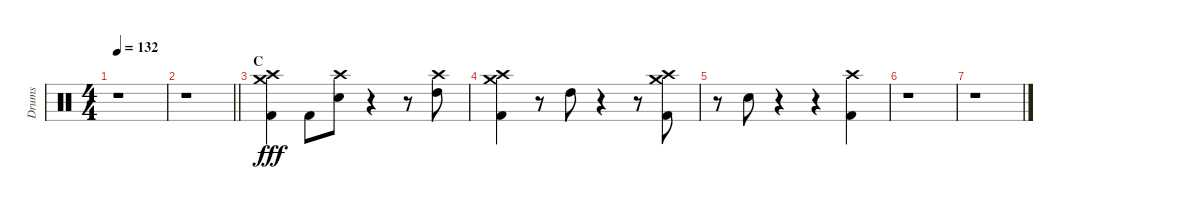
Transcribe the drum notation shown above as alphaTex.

\track ("Drums" "Drums") {instrument percussion}
\staff {score}
\articulation defaults
\ts (4 4)
\tempo 132
\clef neutral
\ks c
r.1{dy fff} |
\barLineRight lightlight
r.1 |
\section ("" "C")
("Crash medium (hit)" "Crash high (hit)" "Kick (hit) 2").4 "Kick (hit) 2".8 ("Crash high (hit)" "Snare (hit) 2").8 r.4 r.8 ("Crash high (hit)" "High Tom (hit)").8 |
("Crash medium (hit)" "Crash high (hit)" "Kick (hit) 2").4 r.8 "High Tom (hit)".8 r.4 r.8 ("Crash medium (hit)" "Crash high (hit)" "Kick (hit) 2").8 |
r.8 "Snare (hit) 2".8 r.4 r.4 ("Crash high (hit)" "Kick (hit) 2").4 |
r.1 |
r.1
